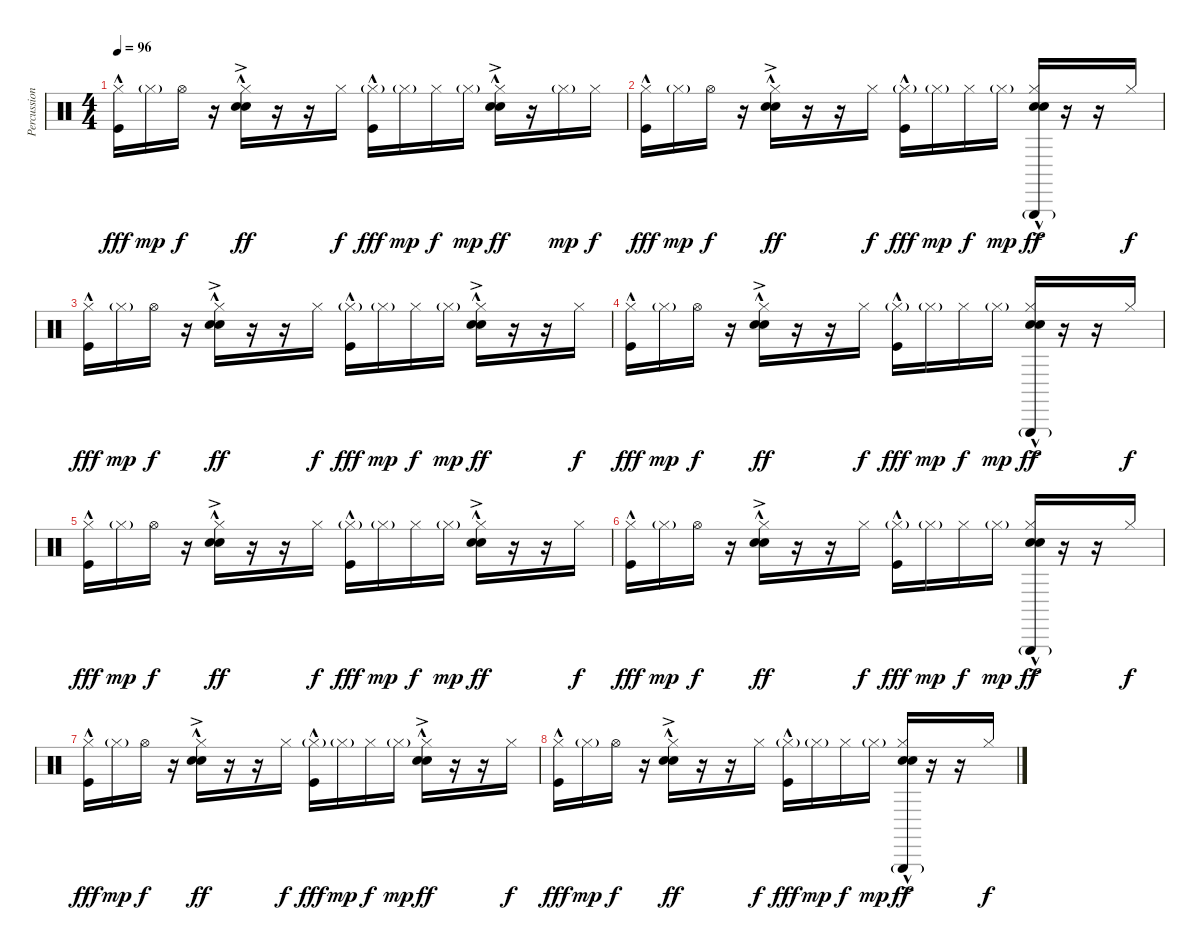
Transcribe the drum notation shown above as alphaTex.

\track ("Percussion" "Percussion") {instrument percussion}
\staff {score}
\articulation defaults
\ts (4 4)
\tempo 96
\clef neutral
\ks c
("Hi-Hat (closed)" "Kick (hit)"{hac}).16{dy fff} "Hi-Hat (closed)"{g}.16{dy mp} "Hi-Hat (open)".16{dy f} r.16 ("Hi-Hat (closed)" "Hand Clap (hit)"{hac} "Snare (hit) 2"{ac}).16{dy ff} r.16 r.16 "Hi-Hat (closed)".16{dy f} ("Hi-Hat (closed)"{g} "Kick (hit)"{hac}).16{dy fff} "Hi-Hat (closed)"{g}.16{dy mp} "Hi-Hat (closed)".16{dy f} "Hi-Hat (closed)"{g}.16{dy mp} ("Hi-Hat (closed)" "Hand Clap (hit)"{hac} "Snare (hit) 2"{ac}).16{dy ff} r.16 "Hi-Hat (closed)"{g}.16{dy mp} "Hi-Hat (closed)".16{dy f} |
("Hi-Hat (closed)" "Kick (hit)"{hac}).16{dy fff} "Hi-Hat (closed)"{g}.16{dy mp} "Hi-Hat (open)".16{dy f} r.16 ("Hi-Hat (closed)" "Hand Clap (hit)"{hac} "Snare (hit) 2"{ac}).16{dy ff} r.16 r.16 "Hi-Hat (closed)".16{dy f} ("Hi-Hat (closed)"{g} "Kick (hit)"{hac}).16{dy fff} "Hi-Hat (closed)"{g}.16{dy mp} "Hi-Hat (closed)".16{dy f} "Hi-Hat (closed)"{g}.16{dy mp} ("Triangle (hit)"{g} "Hi-Hat (closed)" "Hand Clap (hit)"{hac} "Snare (hit) 2"{ac}).16{dy ff} r.16 r.16 "Hi-Hat (closed)".16{dy f} |
("Hi-Hat (closed)" "Kick (hit)"{hac}).16{dy fff} "Hi-Hat (closed)"{g}.16{dy mp} "Hi-Hat (open)".16{dy f} r.16 ("Hi-Hat (closed)" "Hand Clap (hit)"{hac} "Snare (hit) 2"{ac}).16{dy ff} r.16 r.16 "Hi-Hat (closed)".16{dy f} ("Hi-Hat (closed)"{g} "Kick (hit)"{hac}).16{dy fff} "Hi-Hat (closed)"{g}.16{dy mp} "Hi-Hat (closed)".16{dy f} "Hi-Hat (closed)"{g}.16{dy mp} ("Hi-Hat (closed)" "Hand Clap (hit)"{hac} "Snare (hit) 2"{ac}).16{dy ff} r.16 r.16 "Hi-Hat (closed)".16{dy f} |
("Hi-Hat (closed)" "Kick (hit)"{hac}).16{dy fff} "Hi-Hat (closed)"{g}.16{dy mp} "Hi-Hat (open)".16{dy f} r.16 ("Hi-Hat (closed)" "Hand Clap (hit)"{hac} "Snare (hit) 2"{ac}).16{dy ff} r.16 r.16 "Hi-Hat (closed)".16{dy f} ("Hi-Hat (closed)"{g} "Kick (hit)"{hac}).16{dy fff} "Hi-Hat (closed)"{g}.16{dy mp} "Hi-Hat (closed)".16{dy f} "Hi-Hat (closed)"{g}.16{dy mp} ("Triangle (hit)"{g} "Hi-Hat (closed)" "Hand Clap (hit)"{hac} "Snare (hit) 2"{ac}).16{dy ff} r.16 r.16 "Hi-Hat (closed)".16{dy f} |
("Hi-Hat (closed)" "Kick (hit)"{hac}).16{dy fff} "Hi-Hat (closed)"{g}.16{dy mp} "Hi-Hat (open)".16{dy f} r.16 ("Hi-Hat (closed)" "Hand Clap (hit)"{hac} "Snare (hit) 2"{ac}).16{dy ff} r.16 r.16 "Hi-Hat (closed)".16{dy f} ("Hi-Hat (closed)"{g} "Kick (hit)"{hac}).16{dy fff} "Hi-Hat (closed)"{g}.16{dy mp} "Hi-Hat (closed)".16{dy f} "Hi-Hat (closed)"{g}.16{dy mp} ("Hi-Hat (closed)" "Hand Clap (hit)"{hac} "Snare (hit) 2"{ac}).16{dy ff} r.16 r.16 "Hi-Hat (closed)".16{dy f} |
("Hi-Hat (closed)" "Kick (hit)"{hac}).16{dy fff} "Hi-Hat (closed)"{g}.16{dy mp} "Hi-Hat (open)".16{dy f} r.16 ("Hi-Hat (closed)" "Hand Clap (hit)"{hac} "Snare (hit) 2"{ac}).16{dy ff} r.16 r.16 "Hi-Hat (closed)".16{dy f} ("Hi-Hat (closed)"{g} "Kick (hit)"{hac}).16{dy fff} "Hi-Hat (closed)"{g}.16{dy mp} "Hi-Hat (closed)".16{dy f} "Hi-Hat (closed)"{g}.16{dy mp} ("Triangle (hit)"{g} "Hi-Hat (closed)" "Hand Clap (hit)"{hac} "Snare (hit) 2"{ac}).16{dy ff} r.16 r.16 "Hi-Hat (closed)".16{dy f} |
("Hi-Hat (closed)" "Kick (hit)"{hac}).16{dy fff} "Hi-Hat (closed)"{g}.16{dy mp} "Hi-Hat (open)".16{dy f} r.16 ("Hi-Hat (closed)" "Hand Clap (hit)"{hac} "Snare (hit) 2"{ac}).16{dy ff} r.16 r.16 "Hi-Hat (closed)".16{dy f} ("Hi-Hat (closed)"{g} "Kick (hit)"{hac}).16{dy fff} "Hi-Hat (closed)"{g}.16{dy mp} "Hi-Hat (closed)".16{dy f} "Hi-Hat (closed)"{g}.16{dy mp} ("Hi-Hat (closed)" "Hand Clap (hit)"{hac} "Snare (hit) 2"{ac}).16{dy ff} r.16 r.16 "Hi-Hat (closed)".16{dy f} |
("Hi-Hat (closed)" "Kick (hit)"{hac}).16{dy fff} "Hi-Hat (closed)"{g}.16{dy mp} "Hi-Hat (open)".16{dy f} r.16 ("Hi-Hat (closed)" "Hand Clap (hit)"{hac} "Snare (hit) 2"{ac}).16{dy ff} r.16 r.16 "Hi-Hat (closed)".16{dy f} ("Hi-Hat (closed)"{g} "Kick (hit)"{hac}).16{dy fff} "Hi-Hat (closed)"{g}.16{dy mp} "Hi-Hat (closed)".16{dy f} "Hi-Hat (closed)"{g}.16{dy mp} ("Triangle (hit)"{g} "Hi-Hat (closed)" "Hand Clap (hit)"{hac} "Snare (hit) 2"{ac}).16{dy ff} r.16 r.16 "Hi-Hat (closed)".16{dy f}
